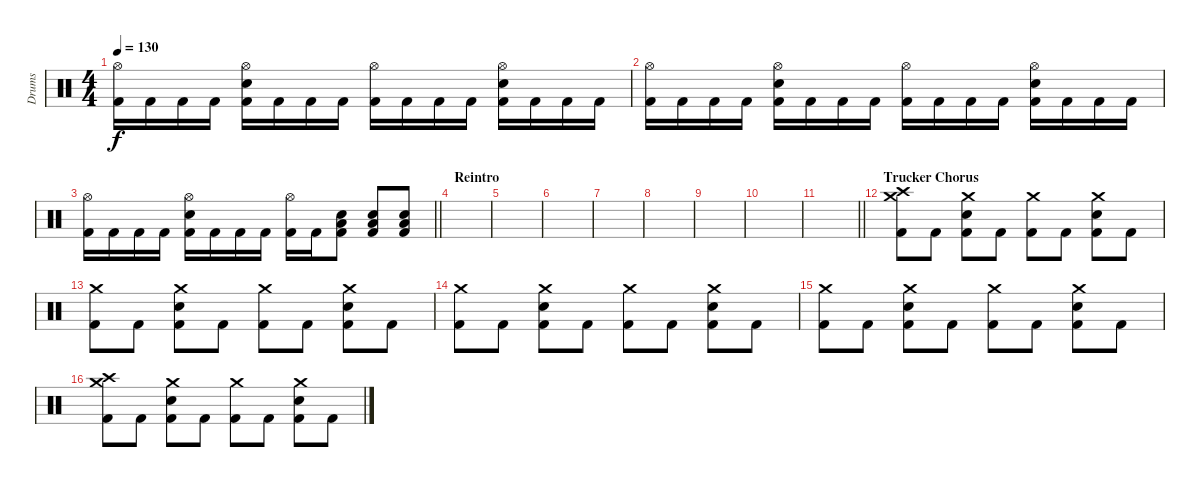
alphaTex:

\track ("Drums" "Drums") {instrument percussion}
\staff {score}
\articulation defaults
\ts (4 4)
\tempo 130
\clef neutral
\ks c
("Hi-Hat (open)" "Kick (hit) 2").16{dy f} "Kick (hit) 2".16 "Kick (hit) 2".16 "Kick (hit) 2".16 ("Hi-Hat (open)" "Snare (hit) 2" "Kick (hit) 2").16 "Kick (hit) 2".16 "Kick (hit) 2".16 "Kick (hit) 2".16 ("Hi-Hat (open)" "Kick (hit) 2").16 "Kick (hit) 2".16 "Kick (hit) 2".16 "Kick (hit) 2".16 ("Hi-Hat (open)" "Snare (hit) 2" "Kick (hit) 2").16 "Kick (hit) 2".16 "Kick (hit) 2".16 "Kick (hit) 2".16 |
("Hi-Hat (open)" "Kick (hit) 2").16 "Kick (hit) 2".16 "Kick (hit) 2".16 "Kick (hit) 2".16 ("Hi-Hat (open)" "Snare (hit) 2" "Kick (hit) 2").16 "Kick (hit) 2".16 "Kick (hit) 2".16 "Kick (hit) 2".16 ("Hi-Hat (open)" "Kick (hit) 2").16 "Kick (hit) 2".16 "Kick (hit) 2".16 "Kick (hit) 2".16 ("Hi-Hat (open)" "Snare (hit) 2" "Kick (hit) 2").16 "Kick (hit) 2".16 "Kick (hit) 2".16 "Kick (hit) 2".16 |
\barLineRight lightlight
("Hi-Hat (open)" "Kick (hit) 2").16 "Kick (hit) 2".16 "Kick (hit) 2".16 "Kick (hit) 2".16 ("Hi-Hat (open)" "Snare (hit) 2" "Kick (hit) 2").16 "Kick (hit) 2".16 "Kick (hit) 2".16 "Kick (hit) 2".16 ("Hi-Hat (open)" "Kick (hit) 2").16 "Kick (hit) 2".16 ("Low Floor Tom (hit)" "Snare (hit) 2" "Kick (hit) 2").8 ("Low Floor Tom (hit)" "Snare (hit) 2" "Kick (hit) 2").8 ("Low Floor Tom (hit)" "Snare (hit) 2" "Kick (hit) 2").8 |
\section ("" "Reintro")
|
|
|
|
|
|
|
\barLineRight lightlight
|
\section ("" "Trucker Chorus")
("Crash medium (hit)" "Crash high (hit)" "Kick (hit) 2").8 "Kick (hit) 2".8 ("Crash medium (hit)" "Snare (hit) 2" "Kick (hit) 2").8 "Kick (hit) 2".8 ("Crash medium (hit)" "Kick (hit) 2").8 "Kick (hit) 2".8 ("Crash medium (hit)" "Snare (hit) 2" "Kick (hit) 2").8 "Kick (hit) 2".8 |
("Crash medium (hit)" "Kick (hit) 2").8 "Kick (hit) 2".8 ("Crash medium (hit)" "Snare (hit) 2" "Kick (hit) 2").8 "Kick (hit) 2".8 ("Crash medium (hit)" "Kick (hit) 2").8 "Kick (hit) 2".8 ("Crash medium (hit)" "Snare (hit) 2" "Kick (hit) 2").8 "Kick (hit) 2".8 |
("Crash medium (hit)" "Kick (hit) 2").8 "Kick (hit) 2".8 ("Crash medium (hit)" "Snare (hit) 2" "Kick (hit) 2").8 "Kick (hit) 2".8 ("Crash medium (hit)" "Kick (hit) 2").8 "Kick (hit) 2".8 ("Crash medium (hit)" "Snare (hit) 2" "Kick (hit) 2").8 "Kick (hit) 2".8 |
("Crash medium (hit)" "Kick (hit) 2").8 "Kick (hit) 2".8 ("Crash medium (hit)" "Snare (hit) 2" "Kick (hit) 2").8 "Kick (hit) 2".8 ("Crash medium (hit)" "Kick (hit) 2").8 "Kick (hit) 2".8 ("Crash medium (hit)" "Snare (hit) 2" "Kick (hit) 2").8 "Kick (hit) 2".8 |
("Crash medium (hit)" "Crash high (hit)" "Kick (hit) 2").8 "Kick (hit) 2".8 ("Crash medium (hit)" "Snare (hit) 2" "Kick (hit) 2").8 "Kick (hit) 2".8 ("Crash medium (hit)" "Kick (hit) 2").8 "Kick (hit) 2".8 ("Crash medium (hit)" "Snare (hit) 2" "Kick (hit) 2").8 "Kick (hit) 2".8
